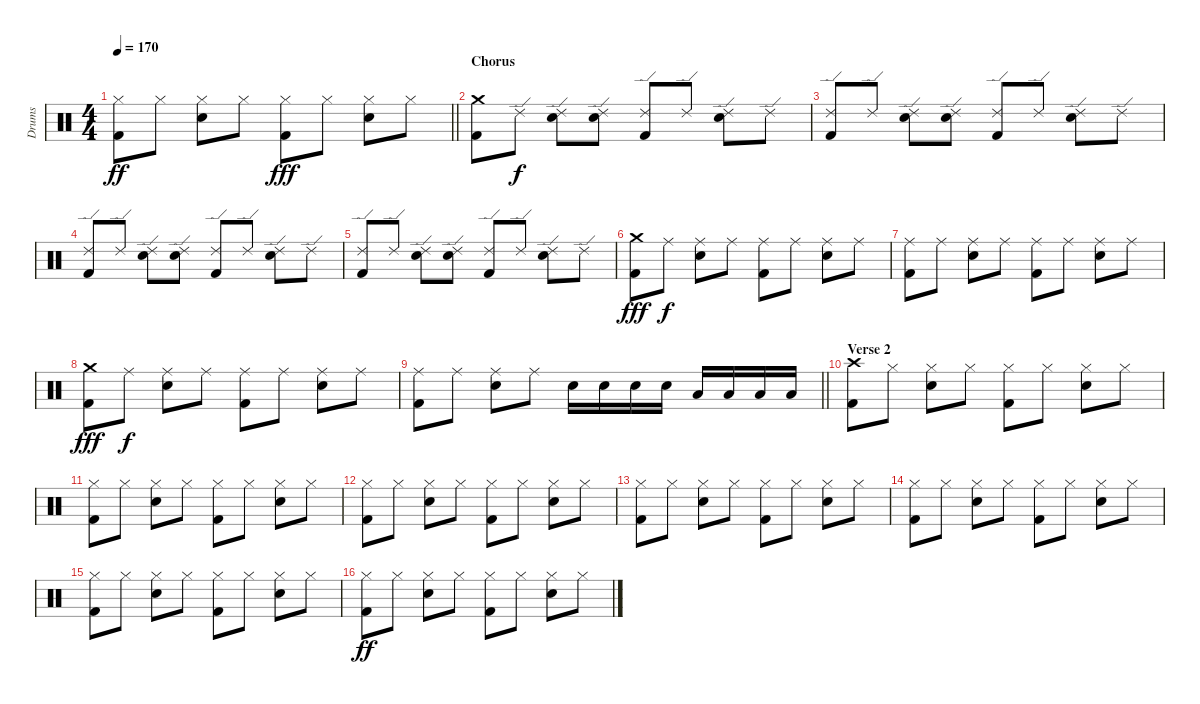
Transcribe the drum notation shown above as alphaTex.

\track ("Drums" "Drums") {instrument percussion}
\staff {score}
\articulation defaults
\ts (4 4)
\tempo 170
\clef neutral
\barLineRight lightlight
\ks c
("Hi-Hat (closed)" "Kick (hit) 2").8{dy ff} "Hi-Hat (closed)".8 ("Hi-Hat (closed)" "Electric Snare (hit)").8 "Hi-Hat (closed)".8 ("Hi-Hat (closed)" "Kick (hit) 2").8{dy fff} "Hi-Hat (closed)".8 ("Hi-Hat (closed)" "Electric Snare (hit)").8 "Hi-Hat (closed)".8 |
\section ("" "Chorus")
("Crash medium (hit)" "Kick (hit) 2").8 "Ride (edge) 2".8{dy f} ("Ride (edge) 2" "Electric Snare (hit)").8 ("Ride (edge) 2" "Electric Snare (hit)").8 ("Ride (edge) 2" "Kick (hit) 2").8 "Ride (edge) 2".8 ("Ride (edge) 2" "Electric Snare (hit)").8 "Ride (edge) 2".8 |
("Ride (edge) 2" "Kick (hit) 2").8 "Ride (edge) 2".8 ("Ride (edge) 2" "Electric Snare (hit)").8 ("Ride (edge) 2" "Electric Snare (hit)").8 ("Ride (edge) 2" "Kick (hit) 2").8 "Ride (edge) 2".8 ("Ride (edge) 2" "Electric Snare (hit)").8 "Ride (edge) 2".8 |
("Ride (edge) 2" "Kick (hit) 2").8 "Ride (edge) 2".8 ("Ride (edge) 2" "Electric Snare (hit)").8 ("Ride (edge) 2" "Electric Snare (hit)").8 ("Ride (edge) 2" "Kick (hit) 2").8 "Ride (edge) 2".8 ("Ride (edge) 2" "Electric Snare (hit)").8 "Ride (edge) 2".8 |
("Ride (edge) 2" "Kick (hit) 2").8 "Ride (edge) 2".8 ("Ride (edge) 2" "Electric Snare (hit)").8 ("Ride (edge) 2" "Electric Snare (hit)").8 ("Ride (edge) 2" "Kick (hit) 2").8 "Ride (edge) 2".8 ("Ride (edge) 2" "Electric Snare (hit)").8 "Ride (edge) 2".8 |
("Crash medium (hit)" "Kick (hit) 2").8{dy fff} "Ride (middle)".8{dy f} ("Ride (middle)" "Electric Snare (hit)").8 "Ride (middle)".8 ("Ride (middle)" "Kick (hit) 2").8 "Ride (middle)".8 ("Ride (middle)" "Electric Snare (hit)").8 "Ride (middle)".8 |
("Ride (middle)" "Kick (hit) 2").8 "Ride (middle)".8 ("Ride (middle)" "Electric Snare (hit)").8 "Ride (middle)".8 ("Ride (middle)" "Kick (hit) 2").8 "Ride (middle)".8 ("Ride (middle)" "Electric Snare (hit)").8 "Ride (middle)".8 |
("Crash medium (hit)" "Kick (hit) 2").8{dy fff} "Ride (middle)".8{dy f} ("Ride (middle)" "Electric Snare (hit)").8 "Ride (middle)".8 ("Ride (middle)" "Kick (hit) 2").8 "Ride (middle)".8 ("Ride (middle)" "Electric Snare (hit)").8 "Ride (middle)".8 |
\barLineRight lightlight
("Ride (middle)" "Kick (hit) 2").8 "Ride (middle)".8 ("Ride (middle)" "Electric Snare (hit)").8 "Ride (middle)".8 "Electric Snare (hit)".16 "Electric Snare (hit)".16 "Electric Snare (hit)".16 "Electric Snare (hit)".16 "Low Tom (hit)".16 "Low Tom (hit)".16 "Low Tom (hit)".16 "Low Tom (hit)".16 |
\section ("" "Verse 2")
("Crash high (hit)" "Kick (hit) 2").8 "Hi-Hat (closed)".8 ("Hi-Hat (closed)" "Electric Snare (hit)").8 "Hi-Hat (closed)".8 ("Hi-Hat (closed)" "Kick (hit) 2").8 "Hi-Hat (closed)".8 ("Hi-Hat (closed)" "Electric Snare (hit)").8 "Hi-Hat (closed)".8 |
("Hi-Hat (closed)" "Kick (hit) 2").8 "Hi-Hat (closed)".8 ("Hi-Hat (closed)" "Electric Snare (hit)").8 "Hi-Hat (closed)".8 ("Hi-Hat (closed)" "Kick (hit) 2").8 "Hi-Hat (closed)".8 ("Hi-Hat (closed)" "Electric Snare (hit)").8 "Hi-Hat (closed)".8 |
("Hi-Hat (closed)" "Kick (hit) 2").8 "Hi-Hat (closed)".8 ("Hi-Hat (closed)" "Electric Snare (hit)").8 "Hi-Hat (closed)".8 ("Hi-Hat (closed)" "Kick (hit) 2").8 "Hi-Hat (closed)".8 ("Hi-Hat (closed)" "Electric Snare (hit)").8 "Hi-Hat (closed)".8 |
("Hi-Hat (closed)" "Kick (hit) 2").8 "Hi-Hat (closed)".8 ("Hi-Hat (closed)" "Electric Snare (hit)").8 "Hi-Hat (closed)".8 ("Hi-Hat (closed)" "Kick (hit) 2").8 "Hi-Hat (closed)".8 ("Hi-Hat (closed)" "Electric Snare (hit)").8 "Hi-Hat (closed)".8 |
("Hi-Hat (closed)" "Kick (hit) 2").8 "Hi-Hat (closed)".8 ("Hi-Hat (closed)" "Electric Snare (hit)").8 "Hi-Hat (closed)".8 ("Hi-Hat (closed)" "Kick (hit) 2").8 "Hi-Hat (closed)".8 ("Hi-Hat (closed)" "Electric Snare (hit)").8 "Hi-Hat (closed)".8 |
("Hi-Hat (closed)" "Kick (hit) 2").8 "Hi-Hat (closed)".8 ("Hi-Hat (closed)" "Electric Snare (hit)").8 "Hi-Hat (closed)".8 ("Hi-Hat (closed)" "Kick (hit) 2").8 "Hi-Hat (closed)".8 ("Hi-Hat (closed)" "Electric Snare (hit)").8 "Hi-Hat (closed)".8 |
("Hi-Hat (closed)" "Kick (hit) 2").8{dy ff} "Hi-Hat (closed)".8 ("Hi-Hat (closed)" "Electric Snare (hit)").8 "Hi-Hat (closed)".8 ("Hi-Hat (closed)" "Kick (hit) 2").8 "Hi-Hat (closed)".8 ("Hi-Hat (closed)" "Electric Snare (hit)").8 "Hi-Hat (closed)".8
